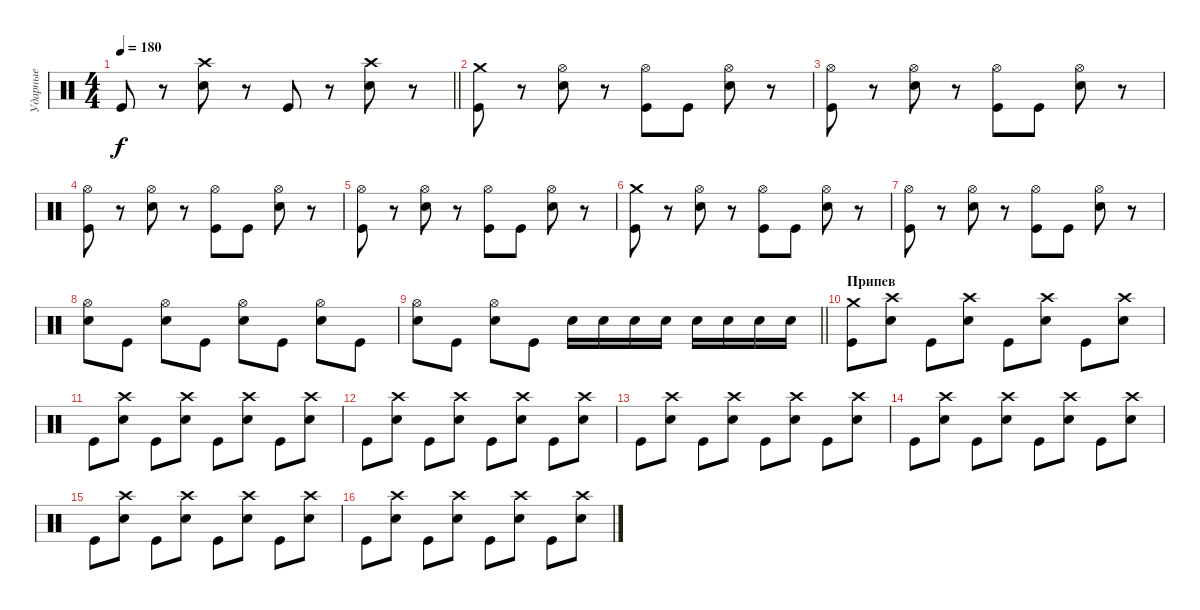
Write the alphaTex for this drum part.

\track ("Ударные" "Ударные") {instrument percussion}
\staff {score}
\articulation defaults
\ts (4 4)
\tempo 180
\clef neutral
\barLineRight lightlight
\ks c "Kick (hit)".8{dy f}
r.8 ("Crash high (hit)" "Electric Snare (hit)").8 r.8 "Kick (hit)".8 r.8 ("Crash high (hit)" "Electric Snare (hit)").8 r.8 |
("Crash medium (hit)" "Kick (hit)").8 r.8 ("Hi-Hat (open)" "Electric Snare (hit)").8 r.8 ("Hi-Hat (open)" "Kick (hit)").8 "Kick (hit)".8 ("Hi-Hat (open)" "Electric Snare (hit)").8 r.8 |
("Hi-Hat (open)" "Kick (hit)").8 r.8 ("Hi-Hat (open)" "Electric Snare (hit)").8 r.8 ("Hi-Hat (open)" "Kick (hit)").8 "Kick (hit)".8 ("Hi-Hat (open)" "Electric Snare (hit)").8 r.8 |
("Hi-Hat (open)" "Kick (hit)").8 r.8 ("Hi-Hat (open)" "Electric Snare (hit)").8 r.8 ("Hi-Hat (open)" "Kick (hit)").8 "Kick (hit)".8 ("Hi-Hat (open)" "Electric Snare (hit)").8 r.8 |
("Hi-Hat (open)" "Kick (hit)").8 r.8 ("Hi-Hat (open)" "Electric Snare (hit)").8 r.8 ("Hi-Hat (open)" "Kick (hit)").8 "Kick (hit)".8 ("Hi-Hat (open)" "Electric Snare (hit)").8 r.8 |
("Crash medium (hit)" "Kick (hit)").8 r.8 ("Hi-Hat (open)" "Electric Snare (hit)").8 r.8 ("Hi-Hat (open)" "Kick (hit)").8 "Kick (hit)".8 ("Hi-Hat (open)" "Electric Snare (hit)").8 r.8 |
("Hi-Hat (open)" "Kick (hit)").8 r.8 ("Hi-Hat (open)" "Electric Snare (hit)").8 r.8 ("Hi-Hat (open)" "Kick (hit)").8 "Kick (hit)".8 ("Hi-Hat (open)" "Electric Snare (hit)").8 r.8 |
("Hi-Hat (open)" "Electric Snare (hit)").8 "Kick (hit)".8 ("Hi-Hat (open)" "Electric Snare (hit)").8 "Kick (hit)".8 ("Hi-Hat (open)" "Electric Snare (hit)").8 "Kick (hit)".8 ("Hi-Hat (open)" "Electric Snare (hit)").8 "Kick (hit)".8 |
\barLineRight lightlight
("Hi-Hat (open)" "Electric Snare (hit)").8 "Kick (hit)".8 ("Hi-Hat (open)" "Electric Snare (hit)").8 "Kick (hit)".8 "Electric Snare (hit)".16 "Electric Snare (hit)".16 "Electric Snare (hit)".16 "Electric Snare (hit)".16 "Electric Snare (hit)".16 "Electric Snare (hit)".16 "Electric Snare (hit)".16 "Electric Snare (hit)".16 |
\section ("" "Припев")
("Crash medium (hit)" "Kick (hit)").8 ("Crash high (hit)" "Electric Snare (hit)").8 "Kick (hit)".8 ("Crash high (hit)" "Electric Snare (hit)").8 "Kick (hit)".8 ("Crash high (hit)" "Electric Snare (hit)").8 "Kick (hit)".8 ("Crash high (hit)" "Electric Snare (hit)").8 |
"Kick (hit)".8 ("Crash high (hit)" "Electric Snare (hit)").8 "Kick (hit)".8 ("Crash high (hit)" "Electric Snare (hit)").8 "Kick (hit)".8 ("Crash high (hit)" "Electric Snare (hit)").8 "Kick (hit)".8 ("Crash high (hit)" "Electric Snare (hit)").8 |
"Kick (hit)".8 ("Crash high (hit)" "Electric Snare (hit)").8 "Kick (hit)".8 ("Crash high (hit)" "Electric Snare (hit)").8 "Kick (hit)".8 ("Crash high (hit)" "Electric Snare (hit)").8 "Kick (hit)".8 ("Crash high (hit)" "Electric Snare (hit)").8 |
"Kick (hit)".8 ("Crash high (hit)" "Electric Snare (hit)").8 "Kick (hit)".8 ("Crash high (hit)" "Electric Snare (hit)").8 "Kick (hit)".8 ("Crash high (hit)" "Electric Snare (hit)").8 "Kick (hit)".8 ("Crash high (hit)" "Electric Snare (hit)").8 |
"Kick (hit)".8 ("Crash high (hit)" "Electric Snare (hit)").8 "Kick (hit)".8 ("Crash high (hit)" "Electric Snare (hit)").8 "Kick (hit)".8 ("Crash high (hit)" "Electric Snare (hit)").8 "Kick (hit)".8 ("Crash high (hit)" "Electric Snare (hit)").8 |
"Kick (hit)".8 ("Crash high (hit)" "Electric Snare (hit)").8 "Kick (hit)".8 ("Crash high (hit)" "Electric Snare (hit)").8 "Kick (hit)".8 ("Crash high (hit)" "Electric Snare (hit)").8 "Kick (hit)".8 ("Crash high (hit)" "Electric Snare (hit)").8 |
"Kick (hit)".8 ("Crash high (hit)" "Electric Snare (hit)").8 "Kick (hit)".8 ("Crash high (hit)" "Electric Snare (hit)").8 "Kick (hit)".8 ("Crash high (hit)" "Electric Snare (hit)").8 "Kick (hit)".8 ("Crash high (hit)" "Electric Snare (hit)").8
